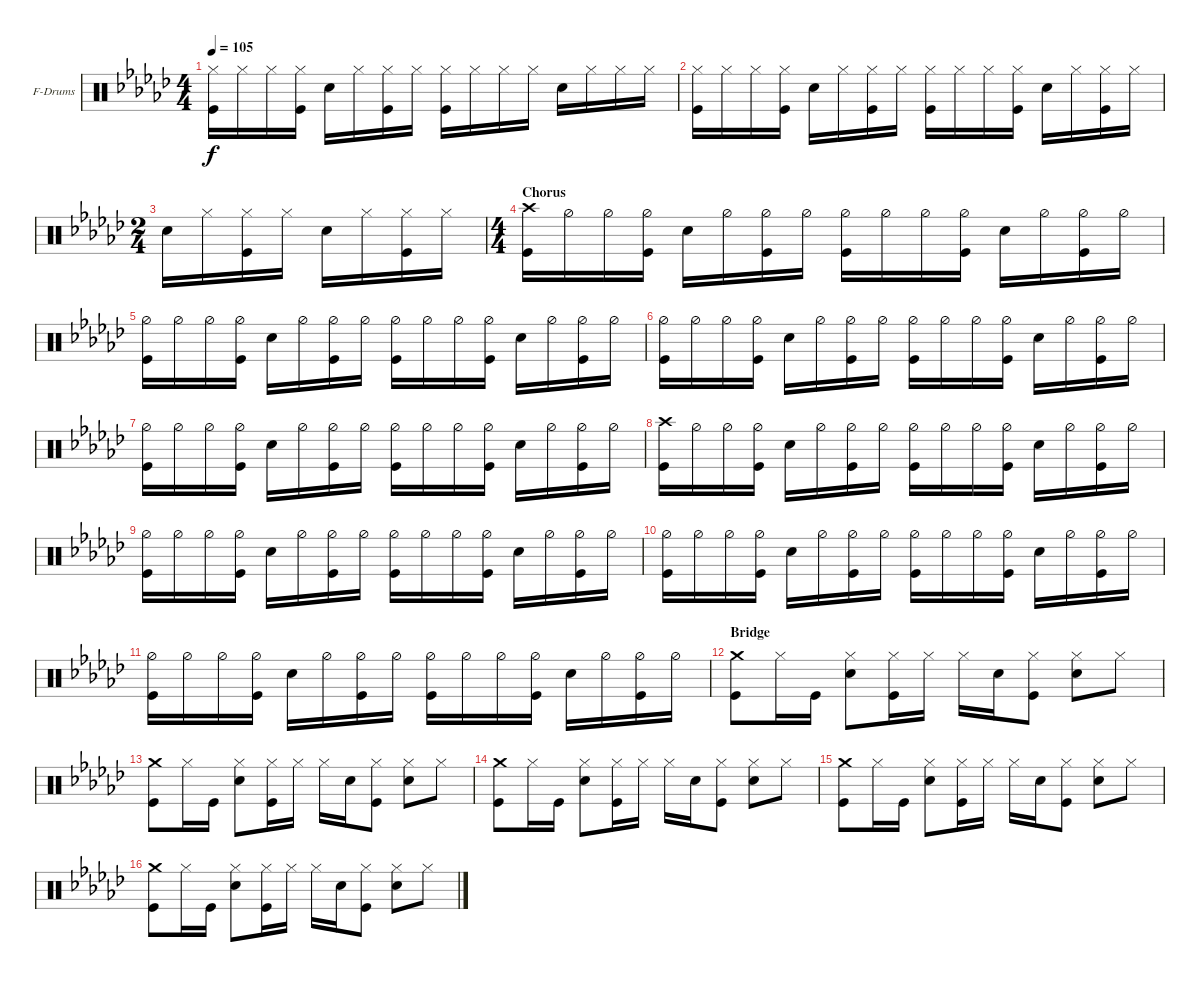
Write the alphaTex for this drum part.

\defaultSystemsLayout 4
\bracketExtendMode groupsimilarinstruments
\firstSystemTrackNameOrientation horizontal
\otherSystemsTrackNameOrientation horizontal
\track ("Fabrizio" "F-Drums") {instrument percussion}
\staff {score}
\articulation defaults
\ts (4 4)
\tempo 105
\clef neutral
\ks ebminor
("Kick (hit)" "Hi-Hat (closed)").16{dy f} "Hi-Hat (closed)".16 "Hi-Hat (closed)".16 ("Kick (hit)" "Hi-Hat (closed)").16 "Snare (hit) 2".16 "Hi-Hat (closed)".16 ("Kick (hit)" "Hi-Hat (closed)").16 "Hi-Hat (closed)".16 ("Kick (hit)" "Hi-Hat (closed)").16 "Hi-Hat (closed)".16 "Hi-Hat (closed)".16 "Hi-Hat (closed)".16 "Snare (hit) 2".16 "Hi-Hat (closed)".16 "Hi-Hat (closed)".16 "Hi-Hat (closed)".16 |
("Kick (hit)" "Hi-Hat (closed)").16 "Hi-Hat (closed)".16 "Hi-Hat (closed)".16 ("Kick (hit)" "Hi-Hat (closed)").16 "Snare (hit) 2".16 "Hi-Hat (closed)".16 ("Kick (hit)" "Hi-Hat (closed)").16 "Hi-Hat (closed)".16 ("Kick (hit)" "Hi-Hat (closed)").16 "Hi-Hat (closed)".16 "Hi-Hat (closed)".16 ("Hi-Hat (closed)" "Kick (hit)").16 "Snare (hit) 2".16 "Hi-Hat (closed)".16 ("Hi-Hat (closed)" "Kick (hit)").16 "Hi-Hat (closed)".16 |
\ts (2 4)
"Snare (hit) 2".16 "Hi-Hat (closed)".16 ("Kick (hit)" "Hi-Hat (closed)").16 "Hi-Hat (closed)".16 "Snare (hit) 2".16 "Hi-Hat (closed)".16 ("Kick (hit)" "Hi-Hat (closed)").16 "Hi-Hat (closed)".16 |
\ts (4 4)
\section ("" "Chorus")
("Kick (hit)" "Crash high (hit)").16 "Hi-Hat (half)".16 "Hi-Hat (half)".16 ("Kick (hit)" "Hi-Hat (half)").16 "Snare (hit) 2".16 "Hi-Hat (half)".16 ("Kick (hit)" "Hi-Hat (half)").16 "Hi-Hat (half)".16 ("Kick (hit)" "Hi-Hat (half)").16 "Hi-Hat (half)".16 "Hi-Hat (half)".16 ("Kick (hit)" "Hi-Hat (half)").16 "Snare (hit) 2".16 "Hi-Hat (half)".16 ("Kick (hit)" "Hi-Hat (half)").16 "Hi-Hat (half)".16 |
("Kick (hit)" "Hi-Hat (half)").16 "Hi-Hat (half)".16 "Hi-Hat (half)".16 ("Kick (hit)" "Hi-Hat (half)").16 "Snare (hit) 2".16 "Hi-Hat (half)".16 ("Kick (hit)" "Hi-Hat (half)").16 "Hi-Hat (half)".16 ("Kick (hit)" "Hi-Hat (half)").16 "Hi-Hat (half)".16 "Hi-Hat (half)".16 ("Kick (hit)" "Hi-Hat (half)").16 "Snare (hit) 2".16 "Hi-Hat (half)".16 ("Kick (hit)" "Hi-Hat (half)").16 "Hi-Hat (half)".16 |
("Kick (hit)" "Hi-Hat (half)").16 "Hi-Hat (half)".16 "Hi-Hat (half)".16 ("Kick (hit)" "Hi-Hat (half)").16 "Snare (hit) 2".16 "Hi-Hat (half)".16 ("Kick (hit)" "Hi-Hat (half)").16 "Hi-Hat (half)".16 ("Kick (hit)" "Hi-Hat (half)").16 "Hi-Hat (half)".16 "Hi-Hat (half)".16 ("Kick (hit)" "Hi-Hat (half)").16 "Snare (hit) 2".16 "Hi-Hat (half)".16 ("Kick (hit)" "Hi-Hat (half)").16 "Hi-Hat (half)".16 |
("Kick (hit)" "Hi-Hat (half)").16 "Hi-Hat (half)".16 "Hi-Hat (half)".16 ("Kick (hit)" "Hi-Hat (half)").16 "Snare (hit) 2".16 "Hi-Hat (half)".16 ("Kick (hit)" "Hi-Hat (half)").16 "Hi-Hat (half)".16 ("Kick (hit)" "Hi-Hat (half)").16 "Hi-Hat (half)".16 "Hi-Hat (half)".16 ("Kick (hit)" "Hi-Hat (half)").16 "Snare (hit) 2".16 "Hi-Hat (half)".16 ("Kick (hit)" "Hi-Hat (half)").16 "Hi-Hat (half)".16 |
("Kick (hit)" "Crash high (hit)").16 "Hi-Hat (half)".16 "Hi-Hat (half)".16 ("Kick (hit)" "Hi-Hat (half)").16 "Snare (hit) 2".16 "Hi-Hat (half)".16 ("Kick (hit)" "Hi-Hat (half)").16 "Hi-Hat (half)".16 ("Kick (hit)" "Hi-Hat (half)").16 "Hi-Hat (half)".16 "Hi-Hat (half)".16 ("Kick (hit)" "Hi-Hat (half)").16 "Snare (hit) 2".16 "Hi-Hat (half)".16 ("Kick (hit)" "Hi-Hat (half)").16 "Hi-Hat (half)".16 |
("Kick (hit)" "Hi-Hat (half)").16 "Hi-Hat (half)".16 "Hi-Hat (half)".16 ("Kick (hit)" "Hi-Hat (half)").16 "Snare (hit) 2".16 "Hi-Hat (half)".16 ("Kick (hit)" "Hi-Hat (half)").16 "Hi-Hat (half)".16 ("Kick (hit)" "Hi-Hat (half)").16 "Hi-Hat (half)".16 "Hi-Hat (half)".16 ("Kick (hit)" "Hi-Hat (half)").16 "Snare (hit) 2".16 "Hi-Hat (half)".16 ("Kick (hit)" "Hi-Hat (half)").16 "Hi-Hat (half)".16 |
("Kick (hit)" "Hi-Hat (half)").16 "Hi-Hat (half)".16 "Hi-Hat (half)".16 ("Kick (hit)" "Hi-Hat (half)").16 "Snare (hit) 2".16 "Hi-Hat (half)".16 ("Kick (hit)" "Hi-Hat (half)").16 "Hi-Hat (half)".16 ("Kick (hit)" "Hi-Hat (half)").16 "Hi-Hat (half)".16 "Hi-Hat (half)".16 ("Kick (hit)" "Hi-Hat (half)").16 "Snare (hit) 2".16 "Hi-Hat (half)".16 ("Kick (hit)" "Hi-Hat (half)").16 "Hi-Hat (half)".16 |
("Kick (hit)" "Hi-Hat (half)").16 "Hi-Hat (half)".16 "Hi-Hat (half)".16 ("Kick (hit)" "Hi-Hat (half)").16 "Snare (hit) 2".16 "Hi-Hat (half)".16 ("Kick (hit)" "Hi-Hat (half)").16 "Hi-Hat (half)".16 ("Kick (hit)" "Hi-Hat (half)").16 "Hi-Hat (half)".16 "Hi-Hat (half)".16 ("Kick (hit)" "Hi-Hat (half)").16 "Snare (hit) 2".16 "Hi-Hat (half)".16 ("Kick (hit)" "Hi-Hat (half)").16 "Hi-Hat (half)".16 |
\section ("" "Bridge")
("Kick (hit)" "Crash medium (hit)").8 "Hi-Hat (closed)".16 "Kick (hit)".16 ("Snare (hit) 2" "Hi-Hat (closed)").8 ("Kick (hit)" "Hi-Hat (closed)").16 "Hi-Hat (closed)".16 "Hi-Hat (closed)".16 "Snare (hit) 2".16 ("Kick (hit)" "Hi-Hat (closed)").8 ("Snare (hit) 2" "Hi-Hat (closed)").8 "Hi-Hat (closed)".8 |
("Kick (hit)" "Crash medium (hit)").8 "Hi-Hat (closed)".16 "Kick (hit)".16 ("Snare (hit) 2" "Hi-Hat (closed)").8 ("Kick (hit)" "Hi-Hat (closed)").16 "Hi-Hat (closed)".16 "Hi-Hat (closed)".16 "Snare (hit) 2".16 ("Kick (hit)" "Hi-Hat (closed)").8 ("Snare (hit) 2" "Hi-Hat (closed)").8 "Hi-Hat (closed)".8 |
("Kick (hit)" "Crash medium (hit)").8 "Hi-Hat (closed)".16 "Kick (hit)".16 ("Snare (hit) 2" "Hi-Hat (closed)").8 ("Kick (hit)" "Hi-Hat (closed)").16 "Hi-Hat (closed)".16 "Hi-Hat (closed)".16 "Snare (hit) 2".16 ("Kick (hit)" "Hi-Hat (closed)").8 ("Snare (hit) 2" "Hi-Hat (closed)").8 "Hi-Hat (closed)".8 |
("Kick (hit)" "Crash medium (hit)").8 "Hi-Hat (closed)".16 "Kick (hit)".16 ("Snare (hit) 2" "Hi-Hat (closed)").8 ("Kick (hit)" "Hi-Hat (closed)").16 "Hi-Hat (closed)".16 "Hi-Hat (closed)".16 "Snare (hit) 2".16 ("Kick (hit)" "Hi-Hat (closed)").8 ("Snare (hit) 2" "Hi-Hat (closed)").8 "Hi-Hat (closed)".8 |
("Kick (hit)" "Crash medium (hit)").8 "Hi-Hat (closed)".16 "Kick (hit)".16 ("Snare (hit) 2" "Hi-Hat (closed)").8 ("Kick (hit)" "Hi-Hat (closed)").16 "Hi-Hat (closed)".16 "Hi-Hat (closed)".16 "Snare (hit) 2".16 ("Kick (hit)" "Hi-Hat (closed)").8 ("Snare (hit) 2" "Hi-Hat (closed)").8 "Hi-Hat (closed)".8
